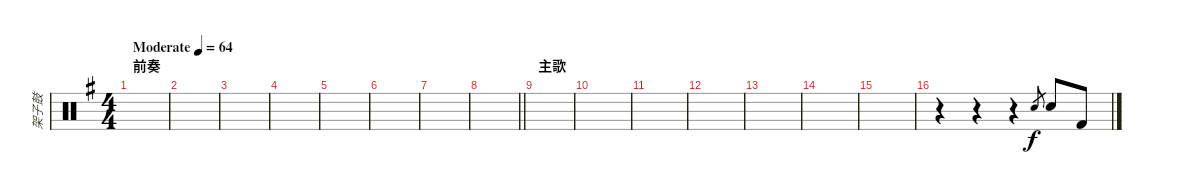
\track ("架子鼓" "架子鼓") {instrument percussion}
\staff {score}
\articulation defaults
\ts (4 4)
\section ("" "前奏")
\tempo (64 "Moderate")
\clef neutral
\ks g
|
|
|
|
|
|
|
\barLineRight lightlight
|
\section ("" "主歌")
|
|
|
|
|
|
|
r.4 r.4 r.4 "Electric Snare (hit)".8{gr} "Electric Snare (hit)".8 "Kick (hit) 2".8
